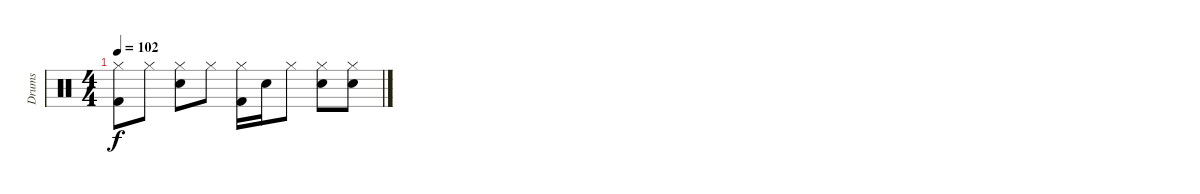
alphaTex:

\track ("Drums" "Drums") {instrument percussion}
\staff {score}
\articulation defaults
\ts (4 4)
\tempo 102
\clef neutral
\ks c
("Hi-Hat (closed)" "Kick (hit) 2").8{dy f} "Hi-Hat (closed)".8 ("Hi-Hat (closed)" "Electric Snare (hit)").8 "Hi-Hat (closed)".8 ("Hi-Hat (closed)" "Kick (hit) 2").16 "Electric Snare (hit)".16 "Hi-Hat (closed)".8 ("Hi-Hat (closed)" "Electric Snare (hit)").8 ("Hi-Hat (closed)" "Electric Snare (hit)").8
